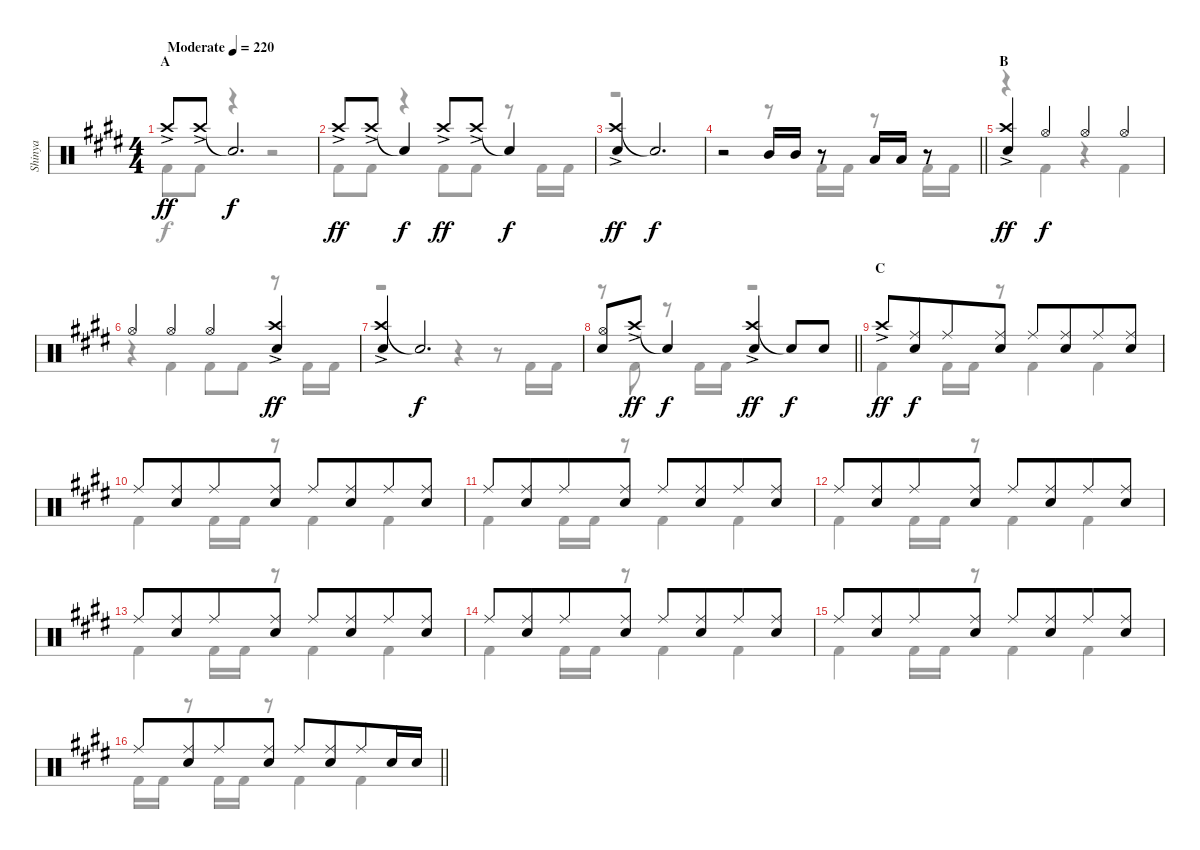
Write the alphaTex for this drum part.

\track ("Shinya" "Shinya") {instrument percussion}
\staff {score}
\articulation defaults
\voice
\ts (4 4)
\section ("" "A")
\tempo (220 "Moderate")
\clef neutral
\ks c#minor "Crash high (hit)"{ac}.8{dy ff} "Crash high (hit)"{ac}.8 "Snare (hit)"{t}.2{d dy f}
|
"Crash high (hit)"{ac}.8{dy ff} "Crash high (hit)"{ac}.8 "Snare (hit)"{t}.4{dy f} "Crash high (hit)"{ac}.8{dy ff} "Crash high (hit)"{ac}.8 "Snare (hit)"{t}.4{dy f} |
("Crash high (hit)"{ac} "Snare (hit) 2").4{dy ff} "Snare (hit)"{t}.2{d dy f} |
\barLineRight lightlight
r.2 "Mid Tom (hit)".16 "Mid Tom (hit)".16 r.8 "Low Tom (hit)".16 "Low Tom (hit)".16 r.8 |
\section ("" "B")
("Crash high (hit)"{ac} "Snare (hit) 2").4{dy ff} "Hi-Hat (open)".4{dy f} "Hi-Hat (open)".4 "Hi-Hat (open)".4 |
"Hi-Hat (open)".4 "Hi-Hat (open)".4 "Hi-Hat (open)".4 ("Crash high (hit)"{ac} "Snare (hit) 2").4{dy ff} |
("Crash high (hit)"{ac} "Snare (hit) 2").4 "Snare (hit)"{t}.2{d dy f} |
\barLineRight lightlight
("Hi-Hat (open)" "Snare (hit) 2").8 "Crash high (hit)"{ac}.8{dy ff} "Snare (hit)"{t}.4{dy f} ("Crash high (hit)"{ac} "Snare (hit) 2").4{dy ff} "Snare (hit)"{t}.8{dy f} "Snare (hit) 2".8 |
\section ("" "C")
"Crash high (hit)"{ac}.8{dy ff} ("Ride (middle)" "Snare (hit) 2").8{dy f beam merge} "Ride (middle)".8 ("Ride (middle)" "Snare (hit) 2").8 "Ride (middle)".8 ("Ride (middle)" "Snare (hit) 2").8{beam merge} "Ride (middle)".8 ("Ride (middle)" "Snare (hit) 2").8 |
"Ride (middle)".8 ("Ride (middle)" "Snare (hit) 2").8{beam merge} "Ride (middle)".8 ("Ride (middle)" "Snare (hit) 2").8 "Ride (middle)".8 ("Ride (middle)" "Snare (hit) 2").8{beam merge} "Ride (middle)".8 ("Ride (middle)" "Snare (hit) 2").8 |
"Ride (middle)".8 ("Ride (middle)" "Snare (hit) 2").8{beam merge} "Ride (middle)".8 ("Ride (middle)" "Snare (hit) 2").8 "Ride (middle)".8 ("Ride (middle)" "Snare (hit) 2").8{beam merge} "Ride (middle)".8 ("Ride (middle)" "Snare (hit) 2").8 |
"Ride (middle)".8 ("Ride (middle)" "Snare (hit) 2").8{beam merge} "Ride (middle)".8 ("Ride (middle)" "Snare (hit) 2").8 "Ride (middle)".8 ("Ride (middle)" "Snare (hit) 2").8{beam merge} "Ride (middle)".8 ("Ride (middle)" "Snare (hit) 2").8 |
"Ride (middle)".8 ("Ride (middle)" "Snare (hit) 2").8{beam merge} "Ride (middle)".8 ("Ride (middle)" "Snare (hit) 2").8 "Ride (middle)".8 ("Ride (middle)" "Snare (hit) 2").8{beam merge} "Ride (middle)".8 ("Ride (middle)" "Snare (hit) 2").8 |
"Ride (middle)".8 ("Ride (middle)" "Snare (hit) 2").8{beam merge} "Ride (middle)".8 ("Ride (middle)" "Snare (hit) 2").8 "Ride (middle)".8 ("Ride (middle)" "Snare (hit) 2").8{beam merge} "Ride (middle)".8 ("Ride (middle)" "Snare (hit) 2").8 |
"Ride (middle)".8 ("Ride (middle)" "Snare (hit) 2").8{beam merge} "Ride (middle)".8 ("Ride (middle)" "Snare (hit) 2").8 "Ride (middle)".8 ("Ride (middle)" "Snare (hit) 2").8{beam merge} "Ride (middle)".8 ("Ride (middle)" "Snare (hit) 2").8 |
\barLineRight lightlight "Ride (middle)".8
("Ride (middle)" "Snare (hit) 2").8{beam merge} "Ride (middle)".8 ("Ride (middle)" "Snare (hit) 2").8 "Ride (middle)".8 ("Ride (middle)" "Snare (hit) 2").8{beam merge} "Ride (middle)".8 "Snare (hit) 2".16 "Snare (hit) 2".16
\voice
\clef neutral
\ottava regular
\simile none
\ks c#minor "Kick (hit) 2".8{dy f} "Kick (hit) 2".8
r.4 r.2 |
"Kick (hit) 2".8 "Kick (hit) 2".8 r.4 "Kick (hit) 2".8 "Kick (hit) 2".8 r.8 "Kick (hit) 2".16 "Kick (hit) 2".16 |
r.1 |
\barLineRight lightlight
r.2 r.8 "Kick (hit) 2".16 "Kick (hit) 2".16 r.8 "Kick (hit) 2".16 "Kick (hit) 2".16 |
r.4 "Kick (hit) 2".4 r.4 "Kick (hit) 2".4 |
r.4 "Kick (hit) 2".4 "Kick (hit) 2".8 "Kick (hit) 2".8 r.8 "Kick (hit) 2".16 "Kick (hit) 2".16 |
r.2 r.4 r.8 "Kick (hit) 2".16 "Kick (hit) 2".16 |
\barLineRight lightlight
r.8 "Kick (hit) 2".8 r.8 "Kick (hit) 2".16 "Kick (hit) 2".16 r.2 |
"Kick (hit) 2".4 "Kick (hit) 2".16 "Kick (hit) 2".16 r.8 "Kick (hit) 2".4 "Kick (hit) 2".4 |
"Kick (hit) 2".4 "Kick (hit) 2".16 "Kick (hit) 2".16 r.8 "Kick (hit) 2".4 "Kick (hit) 2".4 |
"Kick (hit) 2".4 "Kick (hit) 2".16 "Kick (hit) 2".16 r.8 "Kick (hit) 2".4 "Kick (hit) 2".4 |
"Kick (hit) 2".4 "Kick (hit) 2".16 "Kick (hit) 2".16 r.8 "Kick (hit) 2".4 "Kick (hit) 2".4 |
"Kick (hit) 2".4 "Kick (hit) 2".16 "Kick (hit) 2".16 r.8 "Kick (hit) 2".4 "Kick (hit) 2".4 |
"Kick (hit) 2".4 "Kick (hit) 2".16 "Kick (hit) 2".16 r.8 "Kick (hit) 2".4 "Kick (hit) 2".4 |
"Kick (hit) 2".4 "Kick (hit) 2".16 "Kick (hit) 2".16 r.8 "Kick (hit) 2".4 "Kick (hit) 2".4 |
\barLineRight lightlight "Kick (hit) 2".16 "Kick (hit) 2".16
r.8 "Kick (hit) 2".16 "Kick (hit) 2".16 r.8 "Kick (hit) 2".4 "Kick (hit) 2".4
